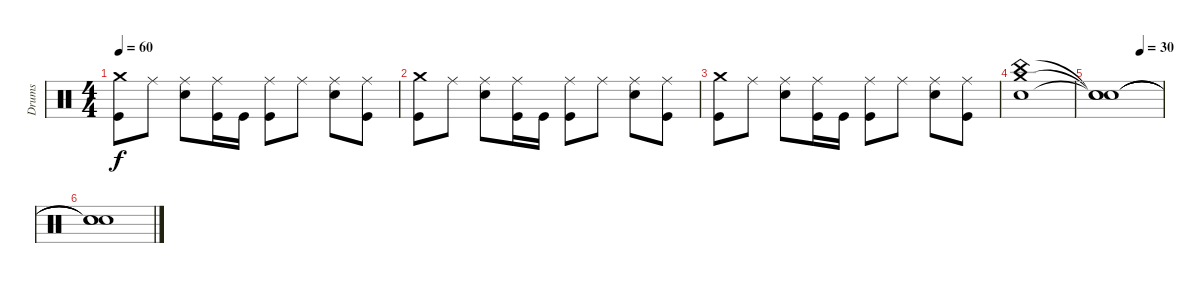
\track ("Drums" "Drums") {instrument percussion}
\staff {score}
\articulation defaults
\ts (4 4)
\tempo 60
\clef neutral
\ks c
("Crash medium (hit)" "Kick (hit)").8{dy f} "Ride (middle)".8 ("Ride (middle)" "Snare (hit) 2").8 ("Ride (middle)" "Kick (hit)").16 "Kick (hit)".16 ("Ride (middle)" "Kick (hit)").8 "Ride (middle)".8 ("Ride (middle)" "Snare (hit) 2").8 ("Ride (middle)" "Kick (hit)").8 |
("Crash medium (hit)" "Kick (hit)").8 "Ride (middle)".8 ("Ride (middle)" "Snare (hit) 2").8 ("Ride (middle)" "Kick (hit)").16 "Kick (hit)".16 ("Ride (middle)" "Kick (hit)").8 "Ride (middle)".8 ("Ride (middle)" "Snare (hit) 2").8 ("Ride (middle)" "Kick (hit)").8 |
("Crash medium (hit)" "Kick (hit)").8 "Ride (middle)".8 ("Ride (middle)" "Snare (hit) 2").8 ("Ride (middle)" "Kick (hit)").16 "Kick (hit)".16 ("Ride (middle)" "Kick (hit)").8 "Ride (middle)".8 ("Ride (middle)" "Snare (hit) 2").8 ("Ride (middle)" "Kick (hit)").8 |
("Crash medium (hit)" "China (hit)" "Snare (hit) 2").1 |
\tempo (30 0.625)
("Snare (hit)"{t} "Snare (hit)"{t} "Snare (hit)"{t}).1 |
("Snare (hit)"{t} "Snare (hit)"{t} "Snare (hit)"{t}).1
